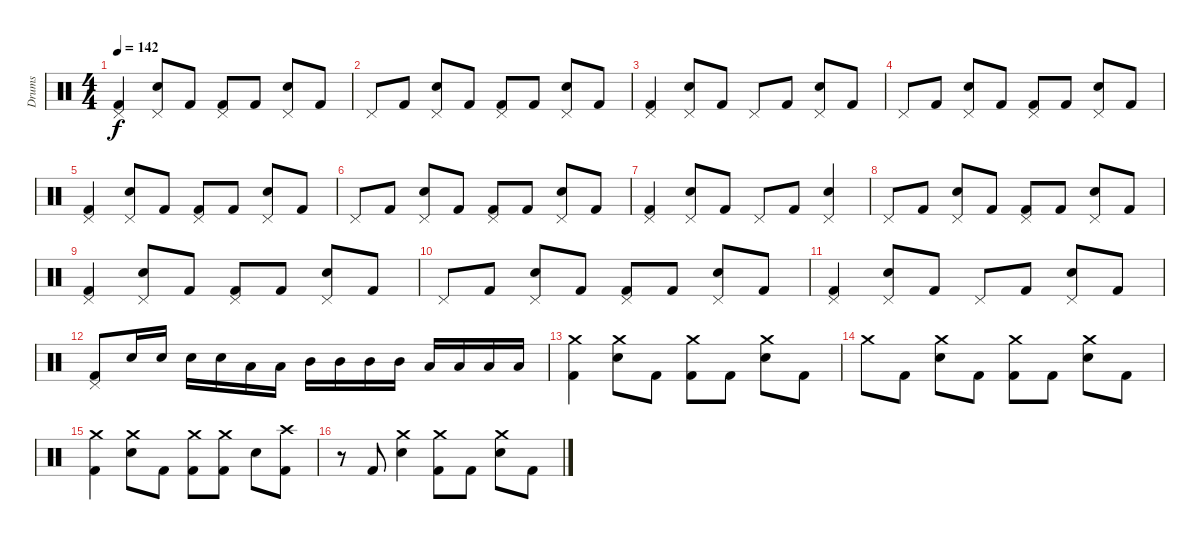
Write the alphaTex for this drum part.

\track ("Drums" "Drums") {instrument percussion}
\staff {score}
\articulation defaults
\ts (4 4)
\tempo 142
\clef neutral
\ks c
("Pedal Hi-Hat (hit)" "Kick (hit) 2").4{dy f} ("Pedal Hi-Hat (hit)" "Electric Snare (hit)").8 "Kick (hit) 2".8 ("Pedal Hi-Hat (hit)" "Kick (hit) 2").8 "Kick (hit) 2".8 ("Pedal Hi-Hat (hit)" "Electric Snare (hit)").8 "Kick (hit) 2".8 |
"Pedal Hi-Hat (hit)".8 "Kick (hit) 2".8 ("Pedal Hi-Hat (hit)" "Electric Snare (hit)").8 "Kick (hit) 2".8 ("Pedal Hi-Hat (hit)" "Kick (hit) 2").8 "Kick (hit) 2".8 ("Pedal Hi-Hat (hit)" "Electric Snare (hit)").8 "Kick (hit) 2".8 |
("Pedal Hi-Hat (hit)" "Kick (hit) 2").4 ("Pedal Hi-Hat (hit)" "Electric Snare (hit)").8 "Kick (hit) 2".8 "Pedal Hi-Hat (hit)".8 "Kick (hit) 2".8 ("Pedal Hi-Hat (hit)" "Electric Snare (hit)").8 "Kick (hit) 2".8 |
"Pedal Hi-Hat (hit)".8 "Kick (hit) 2".8 ("Pedal Hi-Hat (hit)" "Electric Snare (hit)").8 "Kick (hit) 2".8 ("Pedal Hi-Hat (hit)" "Kick (hit) 2").8 "Kick (hit) 2".8 ("Pedal Hi-Hat (hit)" "Electric Snare (hit)").8 "Kick (hit) 2".8 |
("Pedal Hi-Hat (hit)" "Kick (hit) 2").4 ("Pedal Hi-Hat (hit)" "Electric Snare (hit)").8 "Kick (hit) 2".8 ("Pedal Hi-Hat (hit)" "Kick (hit) 2").8 "Kick (hit) 2".8 ("Pedal Hi-Hat (hit)" "Electric Snare (hit)").8 "Kick (hit) 2".8 |
"Pedal Hi-Hat (hit)".8 "Kick (hit) 2".8 ("Pedal Hi-Hat (hit)" "Electric Snare (hit)").8 "Kick (hit) 2".8 ("Pedal Hi-Hat (hit)" "Kick (hit) 2").8 "Kick (hit) 2".8 ("Pedal Hi-Hat (hit)" "Electric Snare (hit)").8 "Kick (hit) 2".8 |
("Pedal Hi-Hat (hit)" "Kick (hit) 2").4 ("Pedal Hi-Hat (hit)" "Electric Snare (hit)").8 "Kick (hit) 2".8 "Pedal Hi-Hat (hit)".8 "Kick (hit) 2".8 ("Pedal Hi-Hat (hit)" "Electric Snare (hit)").4 |
"Pedal Hi-Hat (hit)".8 "Kick (hit) 2".8 ("Pedal Hi-Hat (hit)" "Electric Snare (hit)").8 "Kick (hit) 2".8 ("Pedal Hi-Hat (hit)" "Kick (hit) 2").8 "Kick (hit) 2".8 ("Pedal Hi-Hat (hit)" "Electric Snare (hit)").8 "Kick (hit) 2".8 |
("Pedal Hi-Hat (hit)" "Kick (hit) 2").4 ("Pedal Hi-Hat (hit)" "Electric Snare (hit)").8 "Kick (hit) 2".8 ("Pedal Hi-Hat (hit)" "Kick (hit) 2").8 "Kick (hit) 2".8 ("Pedal Hi-Hat (hit)" "Electric Snare (hit)").8 "Kick (hit) 2".8 |
"Pedal Hi-Hat (hit)".8 "Kick (hit) 2".8 ("Pedal Hi-Hat (hit)" "Electric Snare (hit)").8 "Kick (hit) 2".8 ("Pedal Hi-Hat (hit)" "Kick (hit) 2").8 "Kick (hit) 2".8 ("Pedal Hi-Hat (hit)" "Electric Snare (hit)").8 "Kick (hit) 2".8 |
("Pedal Hi-Hat (hit)" "Kick (hit) 2").4 ("Pedal Hi-Hat (hit)" "Electric Snare (hit)").8 "Kick (hit) 2".8 "Pedal Hi-Hat (hit)".8 "Kick (hit) 2".8 ("Pedal Hi-Hat (hit)" "Electric Snare (hit)").8 "Kick (hit) 2".8 |
("Pedal Hi-Hat (hit)" "Kick (hit) 2").8 "Electric Snare (hit)".16 "Electric Snare (hit)".16 "Electric Snare (hit)".16 "Electric Snare (hit)".16 "Low Tom (hit)".16 "Low Tom (hit)".16 "Mid Tom (hit)".16 "Mid Tom (hit)".16 "Mid Tom (hit)".16 "Mid Tom (hit)".16 "Low Floor Tom (hit)".16 "Low Floor Tom (hit)".16 "Low Floor Tom (hit)".16 "Low Floor Tom (hit)".16 |
("Crash medium (hit)" "Kick (hit) 2").4 ("Crash medium (hit)" "Electric Snare (hit)").8 "Kick (hit) 2".8 ("Crash medium (hit)" "Kick (hit) 2").8 "Kick (hit) 2".8 ("Crash medium (hit)" "Electric Snare (hit)").8 "Kick (hit) 2".8 |
"Crash medium (hit)".8 "Kick (hit) 2".8 ("Crash medium (hit)" "Electric Snare (hit)").8 "Kick (hit) 2".8 ("Crash medium (hit)" "Kick (hit) 2").8 "Kick (hit) 2".8 ("Crash medium (hit)" "Electric Snare (hit)").8 "Kick (hit) 2".8 |
("Crash medium (hit)" "Kick (hit) 2").4 ("Crash medium (hit)" "Electric Snare (hit)").8 "Kick (hit) 2".8 ("Crash medium (hit)" "Kick (hit) 2").8 ("Crash medium (hit)" "Kick (hit) 2").8 "Electric Snare (hit)".8 ("Crash high (hit)" "Kick (hit) 2").8 |
r.8 "Kick (hit) 2".8 ("Crash medium (hit)" "Electric Snare (hit)").4 ("Crash medium (hit)" "Kick (hit) 2").8 "Kick (hit) 2".8 ("Crash medium (hit)" "Electric Snare (hit)").8 "Kick (hit) 2".8
